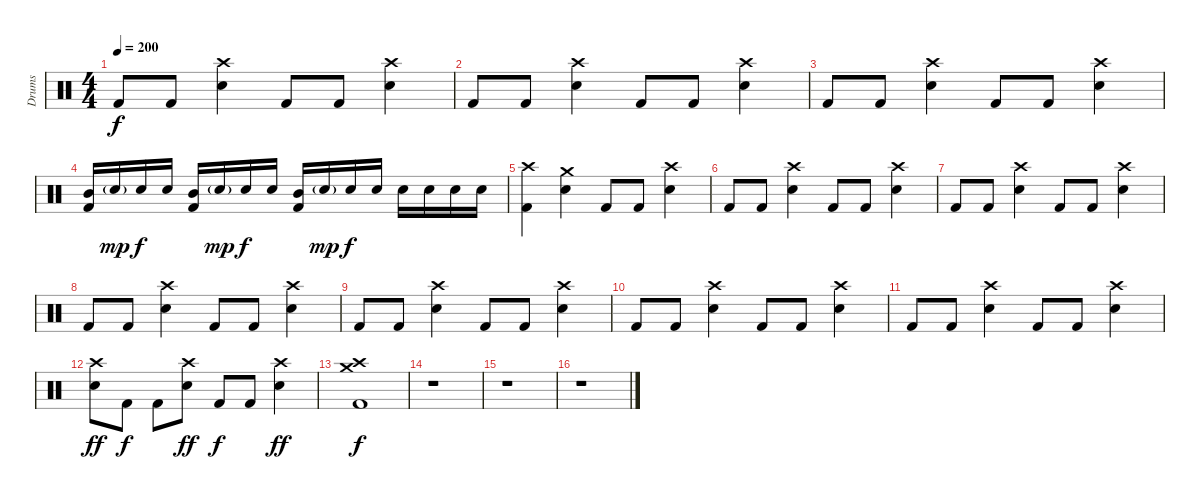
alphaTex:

\track ("Drums" "Drums") {instrument percussion}
\staff {score}
\articulation defaults
\ts (4 4)
\tempo 200
\clef neutral
\ks c "Kick (hit) 2".8{dy f} "Kick (hit) 2".8
("Crash high (hit)" "Electric Snare (hit)").4 "Kick (hit) 2".8 "Kick (hit) 2".8 ("Crash high (hit)" "Electric Snare (hit)").4 |
"Kick (hit) 2".8 "Kick (hit) 2".8 ("Crash high (hit)" "Electric Snare (hit)").4 "Kick (hit) 2".8 "Kick (hit) 2".8 ("Crash high (hit)" "Electric Snare (hit)").4 |
"Kick (hit) 2".8 "Kick (hit) 2".8 ("Crash high (hit)" "Electric Snare (hit)").4 "Kick (hit) 2".8 "Kick (hit) 2".8 ("Crash high (hit)" "Electric Snare (hit)").4 |
("Mid Tom (hit)" "Kick (hit) 2").16 "Electric Snare (hit)"{g}.16{dy mp} "Electric Snare (hit)".16{dy f} "Electric Snare (hit)".16 ("Mid Tom (hit)" "Kick (hit) 2").16 "Electric Snare (hit)"{g}.16{dy mp} "Electric Snare (hit)".16{dy f} "Electric Snare (hit)".16 ("Mid Tom (hit)" "Kick (hit) 2").16 "Electric Snare (hit)"{g}.16{dy mp} "Electric Snare (hit)".16{dy f} "Electric Snare (hit)".16 "Electric Snare (hit)".16 "Electric Snare (hit)".16 "Electric Snare (hit)".16 "Electric Snare (hit)".16 |
("Crash high (hit)" "Kick (hit) 2").4 ("Crash medium (hit)" "Electric Snare (hit)").4 "Kick (hit) 2".8 "Kick (hit) 2".8 ("Crash high (hit)" "Electric Snare (hit)").4 |
"Kick (hit) 2".8 "Kick (hit) 2".8 ("Crash high (hit)" "Electric Snare (hit)").4 "Kick (hit) 2".8 "Kick (hit) 2".8 ("Crash high (hit)" "Electric Snare (hit)").4 |
"Kick (hit) 2".8 "Kick (hit) 2".8 ("Crash high (hit)" "Electric Snare (hit)").4 "Kick (hit) 2".8 "Kick (hit) 2".8 ("Crash high (hit)" "Electric Snare (hit)").4 |
"Kick (hit) 2".8 "Kick (hit) 2".8 ("Crash high (hit)" "Electric Snare (hit)").4 "Kick (hit) 2".8 "Kick (hit) 2".8 ("Crash high (hit)" "Electric Snare (hit)").4 |
"Kick (hit) 2".8 "Kick (hit) 2".8 ("Crash high (hit)" "Electric Snare (hit)").4 "Kick (hit) 2".8 "Kick (hit) 2".8 ("Crash high (hit)" "Electric Snare (hit)").4 |
"Kick (hit) 2".8 "Kick (hit) 2".8 ("Crash high (hit)" "Electric Snare (hit)").4 "Kick (hit) 2".8 "Kick (hit) 2".8 ("Crash high (hit)" "Electric Snare (hit)").4 |
"Kick (hit) 2".8 "Kick (hit) 2".8 ("Crash high (hit)" "Electric Snare (hit)").4 "Kick (hit) 2".8 "Kick (hit) 2".8 ("Crash high (hit)" "Electric Snare (hit)").4 |
("Crash high (hit)" "Electric Snare (hit)").8{dy ff} "Kick (hit) 2".8{dy f} "Kick (hit) 2".8 ("Crash high (hit)" "Electric Snare (hit)").8{dy ff} "Kick (hit) 2".8{dy f} "Kick (hit) 2".8 ("Crash high (hit)" "Electric Snare (hit)").4{dy ff} |
("Crash medium (hit)" "Crash high (hit)" "Kick (hit) 2").1{dy f} |
r.1 |
r.1 |
r.1
